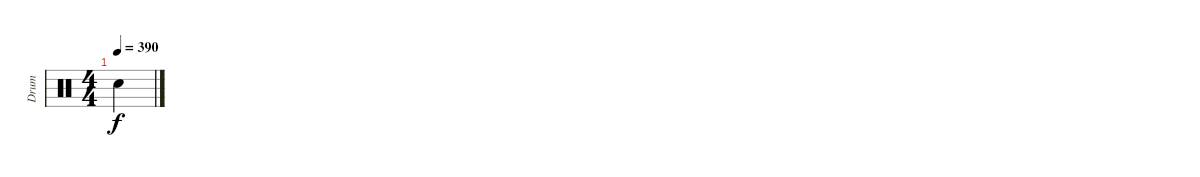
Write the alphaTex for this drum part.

\track ("Drum" "Drum") {instrument percussion}
\staff {score}
\articulation defaults
\ts (4 4)
\tempo 390
\clef neutral
\ks c "Electric Snare (hit)".4{dy f}
